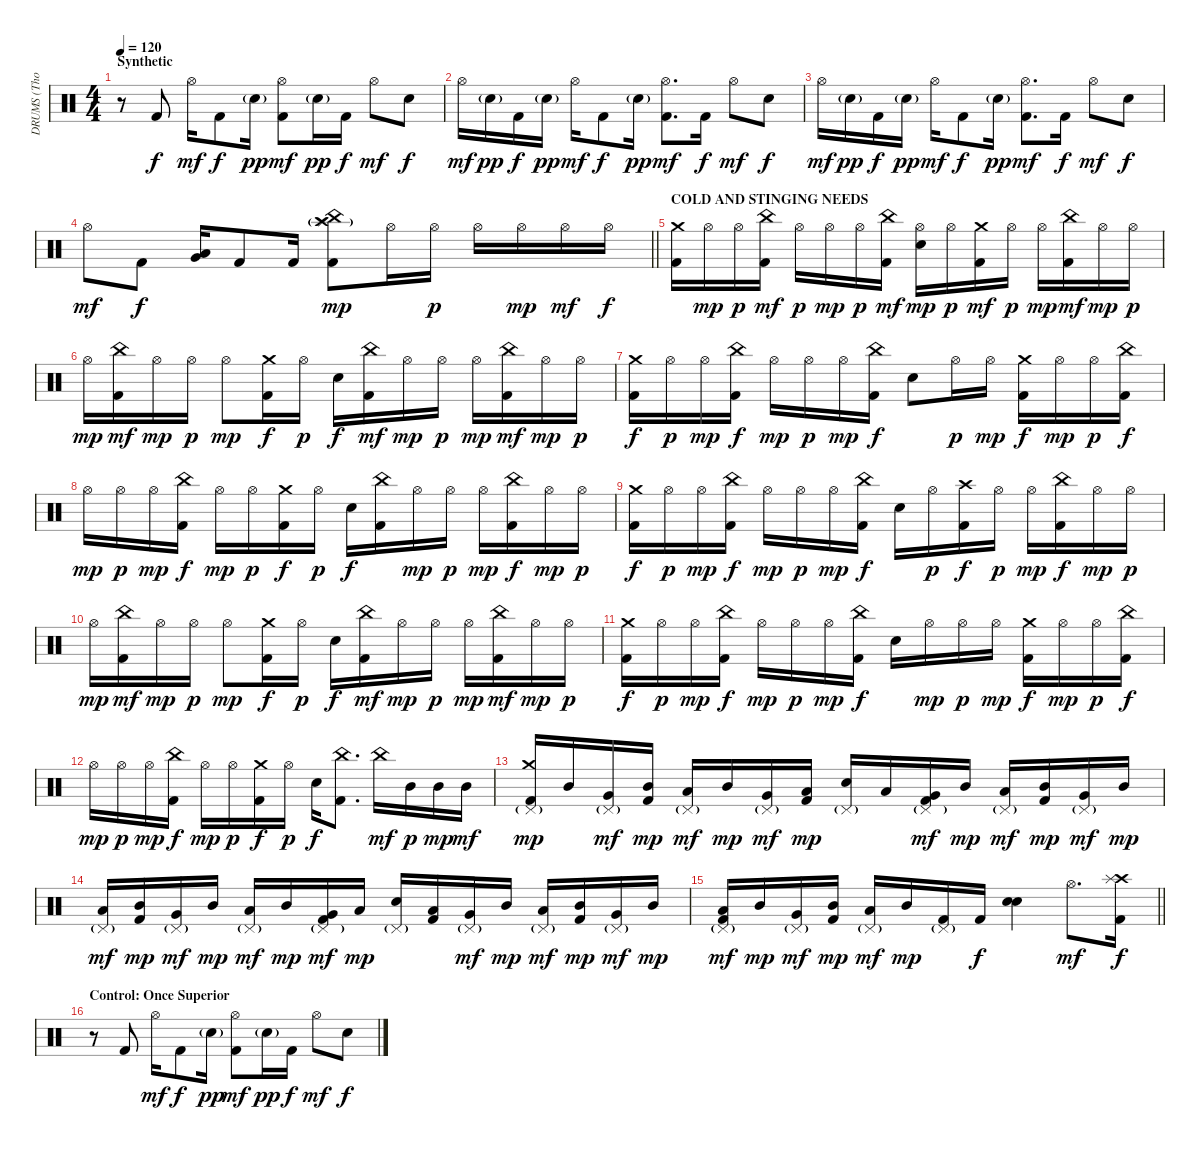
\track ("DRUMS (Thomas Haake)" "DRUMS (Tho") {instrument percussion}
\staff {score}
\articulation defaults
\ts (4 4)
\section ("" "Synthetic")
\tempo 120
\clef neutral
\ks c
r.8{dy f} "Kick (hit) 2".8 "Hi-Hat (open)".16{dy mf} "Kick (hit) 2".8{dy f} "Electric Snare (hit)"{g}.16{dy pp} ("Hi-Hat (open)" "Kick (hit) 2").8{dy mf} "Electric Snare (hit)"{g}.16{dy pp} "Kick (hit) 2".16{dy f} "Hi-Hat (open)".8{dy mf} "Electric Snare (hit)".8{dy f} |
"Hi-Hat (open)".16{dy mf} "Electric Snare (hit)"{g}.16{dy pp} "Kick (hit) 2".16{dy f} "Electric Snare (hit)"{g}.16{dy pp} "Hi-Hat (open)".16{dy mf} "Kick (hit) 2".8{dy f} "Electric Snare (hit)"{g}.16{dy pp} ("Hi-Hat (open)" "Kick (hit) 2").8{d dy mf} "Kick (hit) 2".16{dy f} "Hi-Hat (open)".8{dy mf} "Electric Snare (hit)".8{dy f} |
"Hi-Hat (open)".16{dy mf} "Electric Snare (hit)"{g}.16{dy pp} "Kick (hit) 2".16{dy f} "Electric Snare (hit)"{g}.16{dy pp} "Hi-Hat (open)".16{dy mf} "Kick (hit) 2".8{dy f} "Electric Snare (hit)"{g}.16{dy pp} ("Hi-Hat (open)" "Kick (hit) 2").8{d dy mf} "Kick (hit) 2".16{dy f} "Hi-Hat (open)".8{dy mf} "Electric Snare (hit)".8{dy f} |
\barLineRight lightlight "Hi-Hat (open)".8{dy mf} "Kick (hit) 2".8{dy f}
("Very Low Tom (hit)" "Low Tom (hit)").16{bd 60} "Kick (hit) 2".8 "Kick (hit) 2".16 ("China (hit)" "Splash (hit)" "Crash high (hit)"{g} "Kick (hit) 2").8{dy mp} "Hi-Hat (open)".16 "Hi-Hat (open)".16{dy p} "Hi-Hat (open)".16 "Hi-Hat (open)".16{dy mp} "Hi-Hat (open)".16{dy mf} "Hi-Hat (open)".16{dy f} |
\section ("" "COLD AND STINGING NEEDS")
("Crash medium (hit)" "Kick (hit) 2").16 "Hi-Hat (open)".16{dy mp} "Hi-Hat (open)".16{dy p} ("China (hit)" "Kick (hit) 2").16{dy mf} "Hi-Hat (open)".16{dy p} "Hi-Hat (open)".16{dy mp} "Hi-Hat (open)".16{dy p} ("China (hit)" "Kick (hit) 2").16{dy mf} ("Hi-Hat (open)" "Electric Snare (hit)").16{dy mp} "Hi-Hat (open)".16{dy p} ("Crash medium (hit)" "Kick (hit) 2").16{dy mf} "Hi-Hat (open)".16{dy p} "Hi-Hat (open)".16{dy mp} ("China (hit)" "Kick (hit) 2").16{dy mf} "Hi-Hat (open)".16{dy mp} "Hi-Hat (open)".16{dy p} |
"Hi-Hat (open)".16{dy mp} ("China (hit)" "Kick (hit) 2").16{dy mf} "Hi-Hat (open)".16{dy mp} "Hi-Hat (open)".16{dy p} "Hi-Hat (open)".8{dy mp} ("Crash medium (hit)" "Kick (hit) 2").16{dy f} "Hi-Hat (open)".16{dy p} "Electric Snare (hit)".16{dy f} ("China (hit)" "Kick (hit) 2").16{dy mf} "Hi-Hat (open)".16{dy mp} "Hi-Hat (open)".16{dy p} "Hi-Hat (open)".16{dy mp} ("China (hit)" "Kick (hit) 2").16{dy mf} "Hi-Hat (open)".16{dy mp} "Hi-Hat (open)".16{dy p} |
("Crash medium (hit)" "Kick (hit) 2").16{dy f} "Hi-Hat (open)".16{dy p} "Hi-Hat (open)".16{dy mp} ("China (hit)" "Kick (hit) 2").16{dy f} "Hi-Hat (open)".16{dy mp} "Hi-Hat (open)".16{dy p} "Hi-Hat (open)".16{dy mp} ("China (hit)" "Kick (hit) 2").16{dy f} "Electric Snare (hit)".8 "Hi-Hat (open)".16{dy p} "Hi-Hat (open)".16{dy mp} ("Crash medium (hit)" "Kick (hit) 2").16{dy f} "Hi-Hat (open)".16{dy mp} "Hi-Hat (open)".16{dy p} ("China (hit)" "Kick (hit) 2").16{dy f} |
"Hi-Hat (open)".16{dy mp} "Hi-Hat (open)".16{dy p} "Hi-Hat (open)".16{dy mp} ("China (hit)" "Kick (hit) 2").16{dy f} "Hi-Hat (open)".16{dy mp} "Hi-Hat (open)".16{dy p} ("Crash medium (hit)" "Kick (hit) 2").16{dy f} "Hi-Hat (open)".16{dy p} "Electric Snare (hit)".16{dy f} ("China (hit)" "Kick (hit) 2").16 "Hi-Hat (open)".16{dy mp} "Hi-Hat (open)".16{dy p} "Hi-Hat (open)".16{dy mp} ("China (hit)" "Kick (hit) 2").16{dy f} "Hi-Hat (open)".16{dy mp} "Hi-Hat (open)".16{dy p} |
("Crash medium (hit)" "Kick (hit) 2").16{dy f} "Hi-Hat (open)".16{dy p} "Hi-Hat (open)".16{dy mp} ("China (hit)" "Kick (hit) 2").16{dy f} "Hi-Hat (open)".16{dy mp} "Hi-Hat (open)".16{dy p} "Hi-Hat (open)".16{dy mp} ("China (hit)" "Kick (hit) 2").16{dy f} "Electric Snare (hit)".16 "Hi-Hat (open)".16{dy p} ("Crash high (hit)" "Kick (hit) 2").16{dy f} "Hi-Hat (open)".16{dy p} "Hi-Hat (open)".16{dy mp} ("China (hit)" "Kick (hit) 2").16{dy f} "Hi-Hat (open)".16{dy mp} "Hi-Hat (open)".16{dy p} |
"Hi-Hat (open)".16{dy mp} ("China (hit)" "Kick (hit) 2").16{dy mf} "Hi-Hat (open)".16{dy mp} "Hi-Hat (open)".16{dy p} "Hi-Hat (open)".8{dy mp} ("Crash medium (hit)" "Kick (hit) 2").16{dy f} "Hi-Hat (open)".16{dy p} "Electric Snare (hit)".16{dy f} ("China (hit)" "Kick (hit) 2").16{dy mf} "Hi-Hat (open)".16{dy mp} "Hi-Hat (open)".16{dy p} "Hi-Hat (open)".16{dy mp} ("China (hit)" "Kick (hit) 2").16{dy mf} "Hi-Hat (open)".16{dy mp} "Hi-Hat (open)".16{dy p} |
("Crash medium (hit)" "Kick (hit) 2").16{dy f} "Hi-Hat (open)".16{dy p} "Hi-Hat (open)".16{dy mp} ("China (hit)" "Kick (hit) 2").16{dy f} "Hi-Hat (open)".16{dy mp} "Hi-Hat (open)".16{dy p} "Hi-Hat (open)".16{dy mp} ("China (hit)" "Kick (hit) 2").16{dy f} "Electric Snare (hit)".16 "Hi-Hat (open)".16{dy mp} "Hi-Hat (open)".16{dy p} "Hi-Hat (open)".16{dy mp} ("Crash medium (hit)" "Kick (hit) 2").16{dy f} "Hi-Hat (open)".16{dy mp} "Hi-Hat (open)".16{dy p} ("China (hit)" "Kick (hit) 2").16{dy f} |
"Hi-Hat (open)".16{dy mp} "Hi-Hat (open)".16{dy p} "Hi-Hat (open)".16{dy mp} ("China (hit)" "Kick (hit) 2").16{dy f} "Hi-Hat (open)".16{dy mp} "Hi-Hat (open)".16{dy p} ("Crash medium (hit)" "Kick (hit) 2").16{dy f} "Hi-Hat (open)".16{dy p} "Electric Snare (hit)".16{dy f} ("China (hit)" "Kick (hit) 2").8{d} "China (hit)".16{dy mf} "Mid Tom (hit)".16{dy p} "Mid Tom (hit)".16{dy mp} "Mid Tom (hit)".16{dy mf} |
("Pedal Hi-Hat (hit)"{g} "Crash medium (hit)" "Kick (hit) 2").16{dy mp} "Mid Tom (hit)".16 ("Pedal Hi-Hat (hit)"{g} "Very Low Tom (hit)").16{dy mf} ("Mid Tom (hit)" "Kick (hit) 2").16{dy mp} ("Pedal Hi-Hat (hit)"{g} "Low Floor Tom (hit)").16{dy mf} "Mid Tom (hit)".16{dy mp} ("Pedal Hi-Hat (hit)"{g} "Very Low Tom (hit)").16{dy mf} ("Low Tom (hit)" "Kick (hit) 2").16{dy mp} ("Pedal Hi-Hat (hit)"{g} "Electric Snare (hit)").16 "Low Tom (hit)".16 ("Pedal Hi-Hat (hit)"{g} "Very Low Tom (hit)" "Kick (hit) 2").16{dy mf} "Mid Tom (hit)".16{dy mp} ("Pedal Hi-Hat (hit)"{g} "Low Floor Tom (hit)").16{dy mf} ("Mid Tom (hit)" "Kick (hit) 2").16{dy mp} ("Pedal Hi-Hat (hit)"{g} "Very Low Tom (hit)").16{dy mf} "Mid Tom (hit)".16{dy mp} |
("Pedal Hi-Hat (hit)"{g} "Low Floor Tom (hit)").16{dy mf} ("Mid Tom (hit)" "Kick (hit) 2").16{dy mp} ("Pedal Hi-Hat (hit)"{g} "Very Low Tom (hit)").16{dy mf} "Mid Tom (hit)".16{dy mp} ("Pedal Hi-Hat (hit)"{g} "Low Floor Tom (hit)").16{dy mf} "Mid Tom (hit)".16{dy mp} ("Pedal Hi-Hat (hit)"{g} "Very Low Tom (hit)" "Kick (hit) 2").16{dy mf} "Low Tom (hit)".16{dy mp} ("Pedal Hi-Hat (hit)"{g} "Electric Snare (hit)").16 ("Low Tom (hit)" "Kick (hit) 2").16 ("Pedal Hi-Hat (hit)"{g} "Very Low Tom (hit)").16{dy mf} "Mid Tom (hit)".16{dy mp} ("Pedal Hi-Hat (hit)"{g} "Low Floor Tom (hit)").16{dy mf} ("Mid Tom (hit)" "Kick (hit) 2").16{dy mp} ("Pedal Hi-Hat (hit)"{g} "Very Low Tom (hit)").16{dy mf} "Mid Tom (hit)".16{dy mp} |
\barLineRight lightlight
("Pedal Hi-Hat (hit)"{g} "Low Floor Tom (hit)" "Kick (hit) 2").16{dy mf} "Mid Tom (hit)".16{dy mp} ("Pedal Hi-Hat (hit)"{g} "Very Low Tom (hit)").16{dy mf} ("Mid Tom (hit)" "Kick (hit) 2").16{dy mp} ("Pedal Hi-Hat (hit)"{g} "Low Floor Tom (hit)").16{dy mf} "Mid Tom (hit)".16{dy mp} ("Pedal Hi-Hat (hit)"{g} "Kick (hit) 2").16 "Kick (hit) 2".16{dy f} ("Electric Snare (hit)" "Electric Snare (hit)").4{bd 60} "Hi-Hat (open)".8{d dy mf} ("Crash high (hit)" "Splash (hit)" "Kick (hit) 2").16{dy f} |
\section ("" "Control: Once Superior")
r.8 "Kick (hit) 2".8 "Hi-Hat (open)".16{dy mf} "Kick (hit) 2".8{dy f} "Electric Snare (hit)"{g}.16{dy pp} ("Hi-Hat (open)" "Kick (hit) 2").8{dy mf} "Electric Snare (hit)"{g}.16{dy pp} "Kick (hit) 2".16{dy f} "Hi-Hat (open)".8{dy mf} "Electric Snare (hit)".8{dy f}
